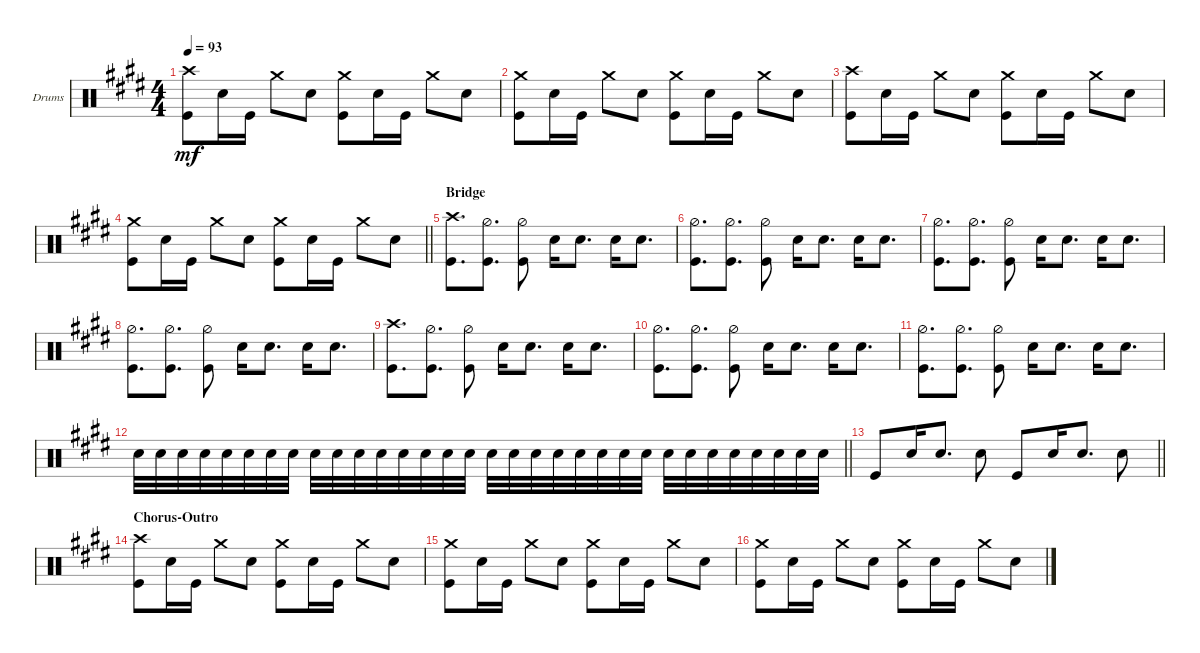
\defaultSystemsLayout 4
\bracketExtendMode groupsimilarinstruments
\firstSystemTrackNameOrientation horizontal
\otherSystemsTrackNameOrientation horizontal
\track ("Drumkit" "Drums") {instrument percussion}
\staff {score}
\articulation defaults
\ts (4 4)
\tempo 93
\clef neutral
\ks e
("Crash high (hit)" "Kick (hit)").8{dy mf} "Snare (hit) 2".16 "Kick (hit)".16 "Crash medium (hit)".8 "Snare (hit) 2".8 ("Kick (hit)" "Crash medium (hit)").8 "Snare (hit) 2".16 "Kick (hit)".16 "Crash medium (hit)".8 "Snare (hit) 2".8 |
("Kick (hit)" "Crash medium (hit)").8 "Snare (hit) 2".16 "Kick (hit)".16 "Crash medium (hit)".8 "Snare (hit) 2".8 ("Kick (hit)" "Crash medium (hit)").8 "Snare (hit) 2".16 "Kick (hit)".16 "Crash medium (hit)".8 "Snare (hit) 2".8 |
("Crash high (hit)" "Kick (hit)").8 "Snare (hit) 2".16 "Kick (hit)".16 "Crash medium (hit)".8 "Snare (hit) 2".8 ("Kick (hit)" "Crash medium (hit)").8 "Snare (hit) 2".16 "Kick (hit)".16 "Crash medium (hit)".8 "Snare (hit) 2".8 |
\barLineRight lightlight
("Kick (hit)" "Crash medium (hit)").8 "Snare (hit) 2".16 "Kick (hit)".16 "Crash medium (hit)".8 "Snare (hit) 2".8 ("Kick (hit)" "Crash medium (hit)").8 "Snare (hit) 2".16 "Kick (hit)".16 "Crash medium (hit)".8 "Snare (hit) 2".8 |
\section ("" "Bridge")
("Kick (hit)" "Crash high (hit)").8{d} ("Kick (hit)" "Hi-Hat (half)").8{d} ("Kick (hit)" "Hi-Hat (half)").8 "Snare (hit) 2".16 "Snare (hit) 2".8{d} "Snare (hit) 2".16 "Snare (hit) 2".8{d} |
("Kick (hit)" "Hi-Hat (half)").8{d} ("Kick (hit)" "Hi-Hat (half)").8{d} ("Kick (hit)" "Hi-Hat (half)").8 "Snare (hit) 2".16 "Snare (hit) 2".8{d} "Snare (hit) 2".16 "Snare (hit) 2".8{d} |
("Kick (hit)" "Hi-Hat (half)").8{d} ("Kick (hit)" "Hi-Hat (half)").8{d} ("Kick (hit)" "Hi-Hat (half)").8 "Snare (hit) 2".16 "Snare (hit) 2".8{d} "Snare (hit) 2".16 "Snare (hit) 2".8{d} |
("Kick (hit)" "Hi-Hat (half)").8{d} ("Kick (hit)" "Hi-Hat (half)").8{d} ("Kick (hit)" "Hi-Hat (half)").8 "Snare (hit) 2".16 "Snare (hit) 2".8{d} "Snare (hit) 2".16 "Snare (hit) 2".8{d} |
("Kick (hit)" "Crash high (hit)").8{d} ("Kick (hit)" "Hi-Hat (half)").8{d} ("Kick (hit)" "Hi-Hat (half)").8 "Snare (hit) 2".16 "Snare (hit) 2".8{d} "Snare (hit) 2".16 "Snare (hit) 2".8{d} |
("Kick (hit)" "Hi-Hat (half)").8{d} ("Kick (hit)" "Hi-Hat (half)").8{d} ("Kick (hit)" "Hi-Hat (half)").8 "Snare (hit) 2".16 "Snare (hit) 2".8{d} "Snare (hit) 2".16 "Snare (hit) 2".8{d} |
("Kick (hit)" "Hi-Hat (half)").8{d} ("Kick (hit)" "Hi-Hat (half)").8{d} ("Kick (hit)" "Hi-Hat (half)").8 "Snare (hit) 2".16 "Snare (hit) 2".8{d} "Snare (hit) 2".16 "Snare (hit) 2".8{d} |
\barLineRight lightlight "Snare (hit) 2".32 "Snare (hit) 2".32 "Snare (hit) 2".32 "Snare (hit) 2".32 "Snare (hit) 2".32 "Snare (hit) 2".32 "Snare (hit) 2".32 "Snare (hit) 2".32 "Snare (hit) 2".32 "Snare (hit) 2".32 "Snare (hit) 2".32 "Snare (hit) 2".32 "Snare (hit) 2".32 "Snare (hit) 2".32 "Snare (hit) 2".32 "Snare (hit) 2".32 "Snare (hit) 2".32 "Snare (hit) 2".32 "Snare (hit) 2".32 "Snare (hit) 2".32 "Snare (hit) 2".32 "Snare (hit) 2".32 "Snare (hit) 2".32 "Snare (hit) 2".32 "Snare (hit) 2".32 "Snare (hit) 2".32 "Snare (hit) 2".32 "Snare (hit) 2".32 "Snare (hit) 2".32 "Snare (hit) 2".32 "Snare (hit) 2".32 "Snare (hit) 2".32
|
\barLineRight lightlight "Kick (hit)".8 "Snare (hit) 2".16 "Snare (hit) 2".8{d} "Snare (hit) 2".8 "Kick (hit)".8 "Snare (hit) 2".16 "Snare (hit) 2".8{d} "Snare (hit) 2".8
|
\section ("" "Chorus-Outro")
("Crash high (hit)" "Kick (hit)").8 "Snare (hit) 2".16 "Kick (hit)".16 "Crash medium (hit)".8 "Snare (hit) 2".8 ("Kick (hit)" "Crash medium (hit)").8 "Snare (hit) 2".16 "Kick (hit)".16 "Crash medium (hit)".8 "Snare (hit) 2".8 |
("Kick (hit)" "Crash medium (hit)").8 "Snare (hit) 2".16 "Kick (hit)".16 "Crash medium (hit)".8 "Snare (hit) 2".8 ("Kick (hit)" "Crash medium (hit)").8 "Snare (hit) 2".16 "Kick (hit)".16 "Crash medium (hit)".8 "Snare (hit) 2".8 |
("Kick (hit)" "Crash medium (hit)").8 "Snare (hit) 2".16 "Kick (hit)".16 "Crash medium (hit)".8 "Snare (hit) 2".8 ("Kick (hit)" "Crash medium (hit)").8 "Snare (hit) 2".16 "Kick (hit)".16 "Crash medium (hit)".8 "Snare (hit) 2".8
